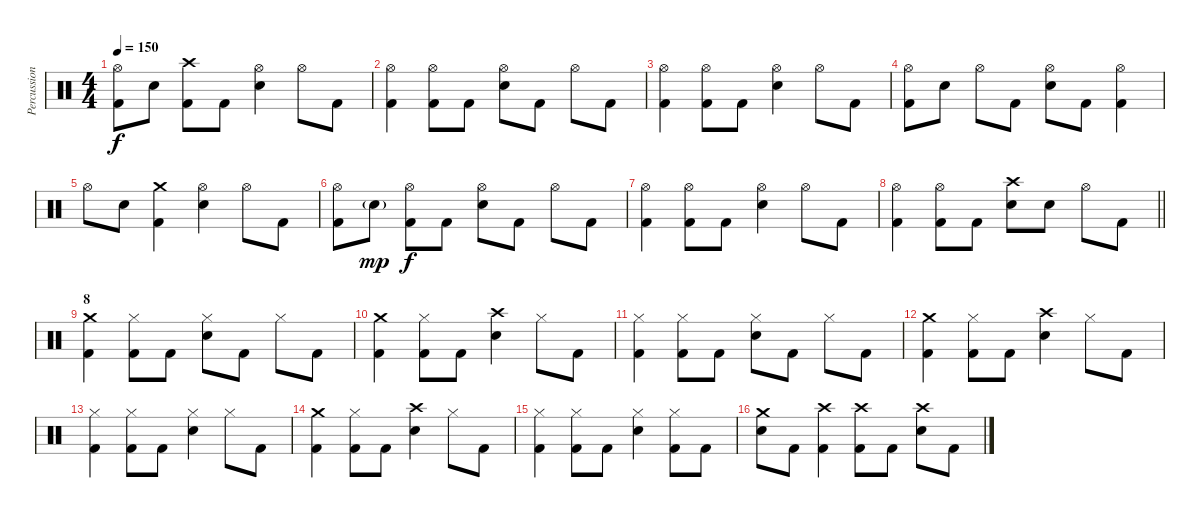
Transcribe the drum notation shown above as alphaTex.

\track ("Percussion" "Percussion") {instrument percussion}
\staff {score}
\articulation defaults
\ts (4 4)
\tempo 150
\clef neutral
\ks c
("Hi-Hat (open)" "Kick (hit) 2").8{dy f} "Snare (hit) 2".8 ("Crash high (hit)" "Kick (hit) 2").8 "Kick (hit) 2".8 ("Hi-Hat (open)" "Snare (hit) 2").4 "Hi-Hat (open)".8 "Kick (hit) 2".8 |
("Hi-Hat (open)" "Kick (hit) 2").4 ("Hi-Hat (open)" "Kick (hit) 2").8 "Kick (hit) 2".8 ("Hi-Hat (open)" "Snare (hit) 2").8 "Kick (hit) 2".8 "Hi-Hat (open)".8 "Kick (hit) 2".8 |
("Hi-Hat (open)" "Kick (hit) 2").4 ("Hi-Hat (open)" "Kick (hit) 2").8 "Kick (hit) 2".8 ("Hi-Hat (open)" "Snare (hit) 2").4 "Hi-Hat (open)".8 "Kick (hit) 2".8 |
("Hi-Hat (open)" "Kick (hit) 2").8 "Snare (hit) 2".8 "Hi-Hat (open)".8 "Kick (hit) 2".8 ("Hi-Hat (open)" "Snare (hit) 2").8 "Kick (hit) 2".8 ("Hi-Hat (open)" "Kick (hit) 2").4 |
"Hi-Hat (open)".8 "Snare (hit) 2".8 ("Crash medium (hit)" "Kick (hit) 2").4 ("Hi-Hat (open)" "Snare (hit) 2").4 "Hi-Hat (open)".8 "Kick (hit) 2".8 |
("Hi-Hat (open)" "Kick (hit) 2").8 "Snare (hit) 2"{g}.8{dy mp} ("Hi-Hat (open)" "Kick (hit) 2").8{dy f} "Kick (hit) 2".8 ("Hi-Hat (open)" "Snare (hit) 2").8 "Kick (hit) 2".8 "Hi-Hat (open)".8 "Kick (hit) 2".8 |
("Hi-Hat (open)" "Kick (hit) 2").4 ("Hi-Hat (open)" "Kick (hit) 2").8 "Kick (hit) 2".8 ("Hi-Hat (open)" "Snare (hit) 2").4 "Hi-Hat (open)".8 "Kick (hit) 2".8 |
\barLineRight lightlight
("Hi-Hat (open)" "Kick (hit) 2").4 ("Hi-Hat (open)" "Kick (hit) 2").8 "Kick (hit) 2".8 ("Crash high (hit)" "Snare (hit) 2").8 "Snare (hit) 2".8 "Hi-Hat (open)".8 "Kick (hit) 2".8 |
\section ("" "8")
("Crash medium (hit)" "Kick (hit) 2").4 ("Hi-Hat (closed)" "Kick (hit) 2").8 "Kick (hit) 2".8 ("Hi-Hat (closed)" "Snare (hit) 2").8 "Kick (hit) 2".8 "Hi-Hat (closed)".8 "Kick (hit) 2".8 |
("Crash medium (hit)" "Kick (hit) 2").4 ("Hi-Hat (closed)" "Kick (hit) 2").8 "Kick (hit) 2".8 ("Crash high (hit)" "Snare (hit) 2").4 "Hi-Hat (closed)".8 "Kick (hit) 2".8 |
("Hi-Hat (closed)" "Kick (hit) 2").4 ("Hi-Hat (closed)" "Kick (hit) 2").8 "Kick (hit) 2".8 ("Hi-Hat (closed)" "Snare (hit) 2").8 "Kick (hit) 2".8 "Hi-Hat (closed)".8 "Kick (hit) 2".8 |
("Crash medium (hit)" "Kick (hit) 2").4 ("Hi-Hat (closed)" "Kick (hit) 2").8 "Kick (hit) 2".8 ("Crash high (hit)" "Snare (hit) 2").4 "Hi-Hat (closed)".8 "Kick (hit) 2".8 |
("Hi-Hat (closed)" "Kick (hit) 2").4 ("Hi-Hat (closed)" "Kick (hit) 2").8 "Kick (hit) 2".8 ("Hi-Hat (closed)" "Snare (hit) 2").4 "Hi-Hat (closed)".8 "Kick (hit) 2".8 |
("Crash medium (hit)" "Kick (hit) 2").4 ("Hi-Hat (closed)" "Kick (hit) 2").8 "Kick (hit) 2".8 ("Crash high (hit)" "Snare (hit) 2").4 "Hi-Hat (closed)".8 "Kick (hit) 2".8 |
("Hi-Hat (closed)" "Kick (hit) 2").4 ("Hi-Hat (closed)" "Kick (hit) 2").8 "Kick (hit) 2".8 ("Hi-Hat (closed)" "Snare (hit) 2").4 ("Hi-Hat (closed)" "Kick (hit) 2").8 "Kick (hit) 2".8 |
("Crash medium (hit)" "Snare (hit) 2").8 "Kick (hit) 2".8 ("Crash high (hit)" "Kick (hit) 2").4 ("Crash high (hit)" "Kick (hit) 2").8 "Kick (hit) 2".8 ("Crash high (hit)" "Snare (hit) 2").8 "Kick (hit) 2".8
